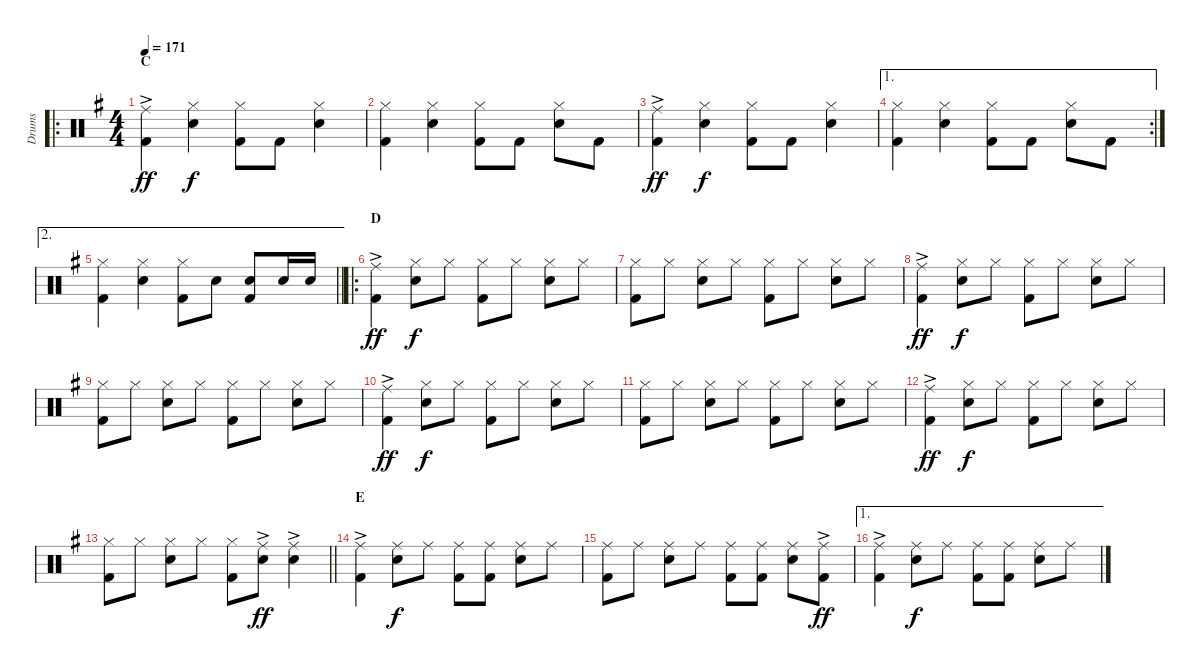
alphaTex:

\track ("Drums" "Drums") {instrument percussion}
\staff {score}
\articulation defaults
\ro
\ts (4 4)
\section ("" "C")
\tempo 171
\clef neutral
\ks g
("Ride (middle)"{ac} "Kick (hit) 2").4{dy ff} ("Hi-Hat (closed)" "Snare (hit) 2").4{dy f} ("Hi-Hat (closed)" "Kick (hit) 2").8 "Kick (hit) 2".8 ("Hi-Hat (closed)" "Snare (hit) 2").4 |
("Hi-Hat (closed)" "Kick (hit) 2").4 ("Hi-Hat (closed)" "Snare (hit) 2").4 ("Hi-Hat (closed)" "Kick (hit) 2").8 "Kick (hit) 2".8 ("Hi-Hat (closed)" "Snare (hit) 2").8 "Kick (hit) 2".8 |
("Ride (middle)"{ac} "Kick (hit) 2").4{dy ff} ("Hi-Hat (closed)" "Snare (hit) 2").4{dy f} ("Hi-Hat (closed)" "Kick (hit) 2").8 "Kick (hit) 2".8 ("Hi-Hat (closed)" "Snare (hit) 2").4 |
\ae 1
\rc 2
("Hi-Hat (closed)" "Kick (hit) 2").4 ("Hi-Hat (closed)" "Snare (hit) 2").4 ("Hi-Hat (closed)" "Kick (hit) 2").8 "Kick (hit) 2".8 ("Hi-Hat (closed)" "Snare (hit) 2").8 "Kick (hit) 2".8 |
\ae 2
\barLineRight lightlight
("Hi-Hat (closed)" "Kick (hit) 2").4 ("Hi-Hat (closed)" "Snare (hit) 2").4 ("Hi-Hat (closed)" "Kick (hit) 2").8 "Snare (hit) 2".8 ("Snare (hit) 2" "Kick (hit) 2").8 "Snare (hit) 2".16 "Snare (hit) 2".16 |
\ro
\section ("" "D")
("Ride (middle)"{ac} "Kick (hit) 2").4{dy ff} ("Hi-Hat (closed)" "Snare (hit) 2").8{dy f} "Hi-Hat (closed)".8 ("Hi-Hat (closed)" "Kick (hit) 2").8 "Hi-Hat (closed)".8 ("Hi-Hat (closed)" "Snare (hit) 2").8 "Hi-Hat (closed)".8 |
("Hi-Hat (closed)" "Kick (hit) 2").8 "Hi-Hat (closed)".8 ("Hi-Hat (closed)" "Snare (hit) 2").8 "Hi-Hat (closed)".8 ("Hi-Hat (closed)" "Kick (hit) 2").8 "Hi-Hat (closed)".8 ("Hi-Hat (closed)" "Snare (hit) 2").8 "Hi-Hat (closed)".8 |
("Ride (middle)"{ac} "Kick (hit) 2").4{dy ff} ("Hi-Hat (closed)" "Snare (hit) 2").8{dy f} "Hi-Hat (closed)".8 ("Hi-Hat (closed)" "Kick (hit) 2").8 "Hi-Hat (closed)".8 ("Hi-Hat (closed)" "Snare (hit) 2").8 "Hi-Hat (closed)".8 |
("Hi-Hat (closed)" "Kick (hit) 2").8 "Hi-Hat (closed)".8 ("Hi-Hat (closed)" "Snare (hit) 2").8 "Hi-Hat (closed)".8 ("Hi-Hat (closed)" "Kick (hit) 2").8 "Hi-Hat (closed)".8 ("Hi-Hat (closed)" "Snare (hit) 2").8 "Hi-Hat (closed)".8 |
("Ride (middle)"{ac} "Kick (hit) 2").4{dy ff} ("Hi-Hat (closed)" "Snare (hit) 2").8{dy f} "Hi-Hat (closed)".8 ("Hi-Hat (closed)" "Kick (hit) 2").8 "Hi-Hat (closed)".8 ("Hi-Hat (closed)" "Snare (hit) 2").8 "Hi-Hat (closed)".8 |
("Hi-Hat (closed)" "Kick (hit) 2").8 "Hi-Hat (closed)".8 ("Hi-Hat (closed)" "Snare (hit) 2").8 "Hi-Hat (closed)".8 ("Hi-Hat (closed)" "Kick (hit) 2").8 "Hi-Hat (closed)".8 ("Hi-Hat (closed)" "Snare (hit) 2").8 "Hi-Hat (closed)".8 |
("Ride (middle)"{ac} "Kick (hit) 2").4{dy ff} ("Hi-Hat (closed)" "Snare (hit) 2").8{dy f} "Hi-Hat (closed)".8 ("Hi-Hat (closed)" "Kick (hit) 2").8 "Hi-Hat (closed)".8 ("Hi-Hat (closed)" "Snare (hit) 2").8 "Hi-Hat (closed)".8 |
\barLineRight lightlight
("Hi-Hat (closed)" "Kick (hit) 2").8 "Hi-Hat (closed)".8 ("Hi-Hat (closed)" "Snare (hit) 2").8 "Hi-Hat (closed)".8 ("Hi-Hat (closed)" "Kick (hit) 2").8 ("Ride (middle)"{ac} "Snare (hit) 2").8{dy ff} ("Ride (middle)"{ac} "Snare (hit) 2").4 |
\section ("" "E")
("Ride (middle)"{ac} "Kick (hit) 2").4 ("Ride (middle)" "Snare (hit) 2").8{dy f} "Ride (middle)".8 ("Ride (middle)" "Kick (hit) 2").8 ("Ride (middle)" "Kick (hit) 2").8 ("Ride (middle)" "Snare (hit) 2").8 "Ride (middle)".8 |
("Ride (middle)" "Kick (hit) 2").8 "Ride (middle)".8 ("Ride (middle)" "Snare (hit) 2").8 "Ride (middle)".8 ("Ride (middle)" "Kick (hit) 2").8 ("Ride (middle)" "Kick (hit) 2").8 ("Ride (middle)" "Snare (hit) 2").8 ("Ride (middle)"{ac} "Kick (hit) 2").8{dy ff} |
\ae 1
("Ride (middle)"{ac} "Kick (hit) 2").4 ("Ride (middle)" "Snare (hit) 2").8{dy f} "Ride (middle)".8 ("Ride (middle)" "Kick (hit) 2").8 ("Ride (middle)" "Kick (hit) 2").8 ("Ride (middle)" "Snare (hit) 2").8 "Ride (middle)".8
